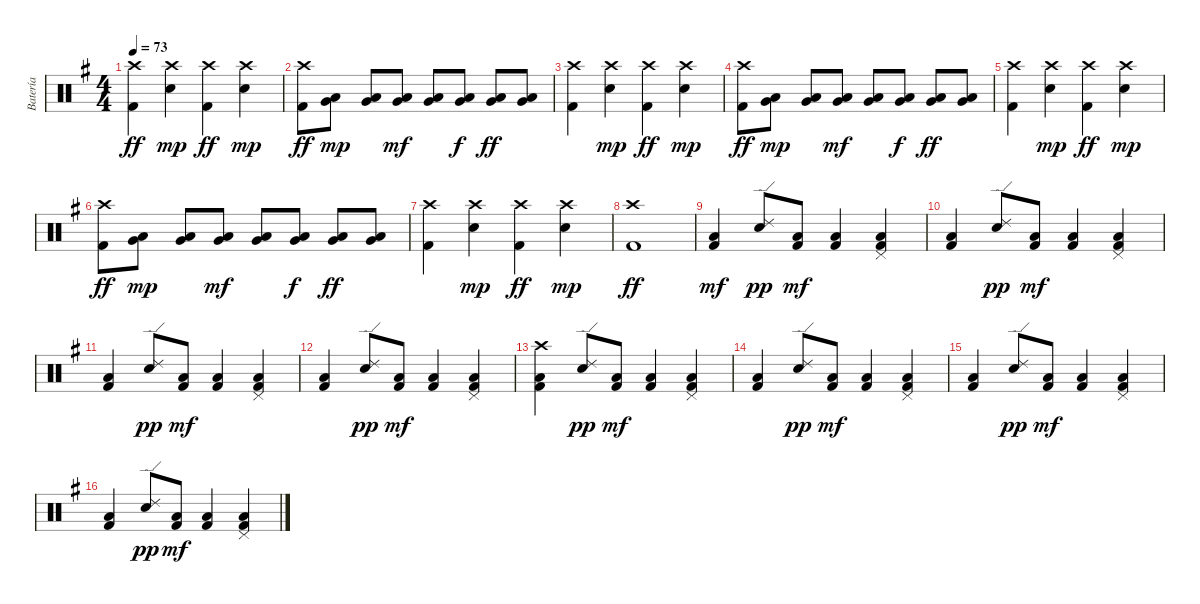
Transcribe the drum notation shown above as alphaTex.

\track ("Batería" "Batería") {instrument percussion}
\staff {score}
\articulation defaults
\ts (4 4)
\tempo 73
\clef neutral
\ks eminor
("Crash high (hit)" "Kick (hit) 2").4{dy ff} ("Electric Snare (hit)" "Crash high (hit)").4{dy mp} ("Crash high (hit)" "Kick (hit) 2").4{dy ff} ("Electric Snare (hit)" "Crash high (hit)").4{dy mp} |
("Crash high (hit)" "Kick (hit) 2").8{dy ff} ("Very Low Tom (hit)" "Low Floor Tom (hit)").8{dy mp} ("Very Low Tom (hit)" "Low Floor Tom (hit)").8 ("Very Low Tom (hit)" "Low Floor Tom (hit)").8{dy mf} ("Very Low Tom (hit)" "Low Floor Tom (hit)").8 ("Very Low Tom (hit)" "Low Floor Tom (hit)").8{dy f} ("Very Low Tom (hit)" "Low Floor Tom (hit)").8{dy ff} ("Very Low Tom (hit)" "Low Floor Tom (hit)").8 |
("Crash high (hit)" "Kick (hit) 2").4 ("Electric Snare (hit)" "Crash high (hit)").4{dy mp} ("Crash high (hit)" "Kick (hit) 2").4{dy ff} ("Electric Snare (hit)" "Crash high (hit)").4{dy mp} |
("Crash high (hit)" "Kick (hit) 2").8{dy ff} ("Very Low Tom (hit)" "Low Floor Tom (hit)").8{dy mp} ("Very Low Tom (hit)" "Low Floor Tom (hit)").8 ("Very Low Tom (hit)" "Low Floor Tom (hit)").8{dy mf} ("Very Low Tom (hit)" "Low Floor Tom (hit)").8 ("Very Low Tom (hit)" "Low Floor Tom (hit)").8{dy f} ("Very Low Tom (hit)" "Low Floor Tom (hit)").8{dy ff} ("Very Low Tom (hit)" "Low Floor Tom (hit)").8 |
("Crash high (hit)" "Kick (hit) 2").4 ("Electric Snare (hit)" "Crash high (hit)").4{dy mp} ("Crash high (hit)" "Kick (hit) 2").4{dy ff} ("Electric Snare (hit)" "Crash high (hit)").4{dy mp} |
("Crash high (hit)" "Kick (hit) 2").8{dy ff} ("Very Low Tom (hit)" "Low Floor Tom (hit)").8{dy mp} ("Very Low Tom (hit)" "Low Floor Tom (hit)").8 ("Very Low Tom (hit)" "Low Floor Tom (hit)").8{dy mf} ("Very Low Tom (hit)" "Low Floor Tom (hit)").8 ("Very Low Tom (hit)" "Low Floor Tom (hit)").8{dy f} ("Very Low Tom (hit)" "Low Floor Tom (hit)").8{dy ff} ("Very Low Tom (hit)" "Low Floor Tom (hit)").8 |
("Crash high (hit)" "Kick (hit) 2").4 ("Electric Snare (hit)" "Crash high (hit)").4{dy mp} ("Crash high (hit)" "Kick (hit) 2").4{dy ff} ("Electric Snare (hit)" "Crash high (hit)").4{dy mp} |
("Crash high (hit)" "Kick (hit) 2").1{dy ff} |
("Low Floor Tom (hit)" "Kick (hit) 2").4{dy mf} ("Electric Snare (hit)" "Ride (edge) 2").8{dy pp} ("Low Floor Tom (hit)" "Kick (hit) 2").8{dy mf} ("Low Floor Tom (hit)" "Kick (hit) 2").4 ("Pedal Hi-Hat (hit)" "Low Floor Tom (hit)" "Kick (hit) 2").4 |
("Low Floor Tom (hit)" "Kick (hit) 2").4 ("Electric Snare (hit)" "Ride (edge) 2").8{dy pp} ("Low Floor Tom (hit)" "Kick (hit) 2").8{dy mf} ("Low Floor Tom (hit)" "Kick (hit) 2").4 ("Pedal Hi-Hat (hit)" "Low Floor Tom (hit)" "Kick (hit) 2").4 |
("Low Floor Tom (hit)" "Kick (hit) 2").4 ("Electric Snare (hit)" "Ride (edge) 2").8{dy pp} ("Low Floor Tom (hit)" "Kick (hit) 2").8{dy mf} ("Low Floor Tom (hit)" "Kick (hit) 2").4 ("Pedal Hi-Hat (hit)" "Low Floor Tom (hit)" "Kick (hit) 2").4 |
("Low Floor Tom (hit)" "Kick (hit) 2").4 ("Electric Snare (hit)" "Ride (edge) 2").8{dy pp} ("Low Floor Tom (hit)" "Kick (hit) 2").8{dy mf} ("Low Floor Tom (hit)" "Kick (hit) 2").4 ("Pedal Hi-Hat (hit)" "Low Floor Tom (hit)" "Kick (hit) 2").4 |
("Crash high (hit)" "Low Floor Tom (hit)" "Kick (hit) 2").4 ("Electric Snare (hit)" "Ride (edge) 2").8{dy pp} ("Low Floor Tom (hit)" "Kick (hit) 2").8{dy mf} ("Low Floor Tom (hit)" "Kick (hit) 2").4 ("Pedal Hi-Hat (hit)" "Low Floor Tom (hit)" "Kick (hit) 2").4 |
("Low Floor Tom (hit)" "Kick (hit) 2").4 ("Electric Snare (hit)" "Ride (edge) 2").8{dy pp} ("Low Floor Tom (hit)" "Kick (hit) 2").8{dy mf} ("Low Floor Tom (hit)" "Kick (hit) 2").4 ("Pedal Hi-Hat (hit)" "Low Floor Tom (hit)" "Kick (hit) 2").4 |
("Low Floor Tom (hit)" "Kick (hit) 2").4 ("Electric Snare (hit)" "Ride (edge) 2").8{dy pp} ("Low Floor Tom (hit)" "Kick (hit) 2").8{dy mf} ("Low Floor Tom (hit)" "Kick (hit) 2").4 ("Pedal Hi-Hat (hit)" "Low Floor Tom (hit)" "Kick (hit) 2").4 |
("Low Floor Tom (hit)" "Kick (hit) 2").4 ("Electric Snare (hit)" "Ride (edge) 2").8{dy pp} ("Low Floor Tom (hit)" "Kick (hit) 2").8{dy mf} ("Low Floor Tom (hit)" "Kick (hit) 2").4 ("Pedal Hi-Hat (hit)" "Low Floor Tom (hit)" "Kick (hit) 2").4
